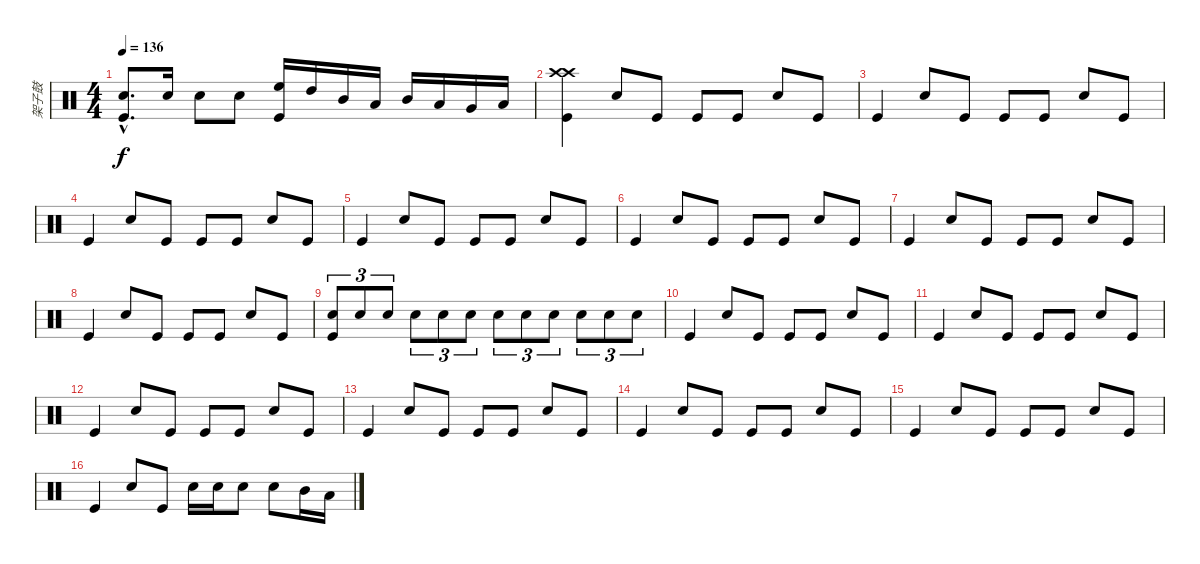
\track ("架子鼓" "架子鼓") {instrument percussion}
\staff {score}
\articulation defaults
\ts (4 4)
\tempo 136
\clef neutral
\ks c
("Snare (hit) 2"{hac} "Kick (hit)"{hac}).8{d dy f} "Snare (hit) 2".16 "Snare (hit) 2".8 "Snare (hit) 2".8 ("High Floor Tom (hit)" "Kick (hit)").16 "High Tom (hit)".16 "Mid Tom (hit)".16 "Low Tom (hit)".16 "Mid Tom (hit)".16 "Low Tom (hit)".16 "Very Low Tom (hit)".16 "Low Floor Tom (hit)".16 |
("Crash high (hit)" "Crash high (hit)" "Kick (hit)").4 "Snare (hit) 2".8 "Kick (hit)".8 "Kick (hit)".8 "Kick (hit)".8 "Snare (hit) 2".8 "Kick (hit)".8 |
"Kick (hit)".4 "Snare (hit) 2".8 "Kick (hit)".8 "Kick (hit)".8 "Kick (hit)".8 "Snare (hit) 2".8 "Kick (hit)".8 |
"Kick (hit)".4 "Snare (hit) 2".8 "Kick (hit)".8 "Kick (hit)".8 "Kick (hit)".8 "Snare (hit) 2".8 "Kick (hit)".8 |
"Kick (hit)".4 "Snare (hit) 2".8 "Kick (hit)".8 "Kick (hit)".8 "Kick (hit)".8 "Snare (hit) 2".8 "Kick (hit)".8 |
"Kick (hit)".4 "Snare (hit) 2".8 "Kick (hit)".8 "Kick (hit)".8 "Kick (hit)".8 "Snare (hit) 2".8 "Kick (hit)".8 |
"Kick (hit)".4 "Snare (hit) 2".8 "Kick (hit)".8 "Kick (hit)".8 "Kick (hit)".8 "Snare (hit) 2".8 "Kick (hit)".8 |
"Kick (hit)".4 "Snare (hit) 2".8 "Kick (hit)".8 "Kick (hit)".8 "Kick (hit)".8 "Snare (hit) 2".8 "Kick (hit)".8 |
("Snare (hit) 2" "Kick (hit)").8{tu (3 2)} "Snare (hit) 2".8{tu (3 2)} "Snare (hit) 2".8{tu (3 2)} "Snare (hit) 2".8{tu (3 2)} "Snare (hit) 2".8{tu (3 2)} "Snare (hit) 2".8{tu (3 2)} "Snare (hit) 2".8{tu (3 2)} "Snare (hit) 2".8{tu (3 2)} "Snare (hit) 2".8{tu (3 2)} "Snare (hit) 2".8{tu (3 2)} "Snare (hit) 2".8{tu (3 2)} "Snare (hit) 2".8{tu (3 2)} |
"Kick (hit)".4 "Snare (hit) 2".8 "Kick (hit)".8 "Kick (hit)".8 "Kick (hit)".8 "Snare (hit) 2".8 "Kick (hit)".8 |
"Kick (hit)".4 "Snare (hit) 2".8 "Kick (hit)".8 "Kick (hit)".8 "Kick (hit)".8 "Snare (hit) 2".8 "Kick (hit)".8 |
"Kick (hit)".4 "Snare (hit) 2".8 "Kick (hit)".8 "Kick (hit)".8 "Kick (hit)".8 "Snare (hit) 2".8 "Kick (hit)".8 |
"Kick (hit)".4 "Snare (hit) 2".8 "Kick (hit)".8 "Kick (hit)".8 "Kick (hit)".8 "Snare (hit) 2".8 "Kick (hit)".8 |
"Kick (hit)".4 "Snare (hit) 2".8 "Kick (hit)".8 "Kick (hit)".8 "Kick (hit)".8 "Snare (hit) 2".8 "Kick (hit)".8 |
"Kick (hit)".4 "Snare (hit) 2".8 "Kick (hit)".8 "Kick (hit)".8 "Kick (hit)".8 "Snare (hit) 2".8 "Kick (hit)".8 |
"Kick (hit)".4 "Snare (hit) 2".8 "Kick (hit)".8 "Snare (hit) 2".16 "Snare (hit) 2".16 "Snare (hit) 2".8 "Snare (hit) 2".8 "Mid Tom (hit)".16 "Low Tom (hit)".16
